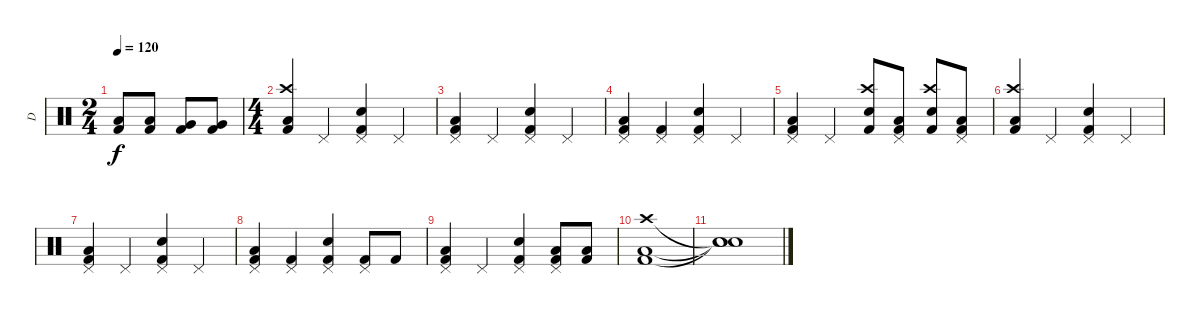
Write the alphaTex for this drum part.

\track ("D" "D") {instrument percussion}
\staff {score}
\articulation defaults
\ts (2 4)
\tempo 120
\clef neutral
\ks c
("Low Tom (hit)" "Kick (hit) 2").8{dy f} ("Low Tom (hit)" "Kick (hit) 2").8 ("Very Low Tom (hit)" "Kick (hit) 2").8 ("Very Low Tom (hit)" "Kick (hit) 2").8 |
\ts (4 4)
("Crash high (hit)" "Low Floor Tom (hit)" "Kick (hit) 2").4 "Pedal Hi-Hat (hit)".4 ("Pedal Hi-Hat (hit)" "Snare (hit) 2" "Kick (hit) 2").4 "Pedal Hi-Hat (hit)".4 |
("Pedal Hi-Hat (hit)" "Low Floor Tom (hit)" "Kick (hit) 2").4 "Pedal Hi-Hat (hit)".4 ("Pedal Hi-Hat (hit)" "Snare (hit) 2" "Kick (hit) 2").4 "Pedal Hi-Hat (hit)".4 |
("Pedal Hi-Hat (hit)" "Low Floor Tom (hit)" "Kick (hit) 2").4 ("Pedal Hi-Hat (hit)" "Kick (hit) 2").4 ("Pedal Hi-Hat (hit)" "Snare (hit) 2" "Kick (hit) 2").4 "Pedal Hi-Hat (hit)".4 |
("Pedal Hi-Hat (hit)" "Low Floor Tom (hit)" "Kick (hit) 2").4 "Pedal Hi-Hat (hit)".4 ("Crash high (hit)" "Snare (hit) 2" "Kick (hit) 2").8 ("Pedal Hi-Hat (hit)" "Low Floor Tom (hit)" "Kick (hit) 2").8 ("Crash high (hit)" "Snare (hit) 2" "Kick (hit) 2").8 ("Pedal Hi-Hat (hit)" "Low Floor Tom (hit)" "Kick (hit) 2").8 |
("Crash high (hit)" "Low Floor Tom (hit)" "Kick (hit) 2").4 "Pedal Hi-Hat (hit)".4 ("Pedal Hi-Hat (hit)" "Snare (hit) 2" "Kick (hit) 2").4 "Pedal Hi-Hat (hit)".4 |
("Pedal Hi-Hat (hit)" "Low Floor Tom (hit)" "Kick (hit) 2").4 "Pedal Hi-Hat (hit)".4 ("Pedal Hi-Hat (hit)" "Snare (hit) 2" "Kick (hit) 2").4 "Pedal Hi-Hat (hit)".4 |
("Pedal Hi-Hat (hit)" "Low Floor Tom (hit)" "Kick (hit) 2").4 ("Pedal Hi-Hat (hit)" "Kick (hit) 2").4 ("Pedal Hi-Hat (hit)" "Snare (hit) 2" "Kick (hit) 2").4 ("Pedal Hi-Hat (hit)" "Kick (hit) 2").8 "Kick (hit) 2".8 |
("Pedal Hi-Hat (hit)" "Low Floor Tom (hit)" "Kick (hit) 2").4 "Pedal Hi-Hat (hit)".4 ("Pedal Hi-Hat (hit)" "Snare (hit) 2" "Kick (hit) 2").4 ("Pedal Hi-Hat (hit)" "Low Floor Tom (hit)" "Kick (hit) 2").8 ("Low Floor Tom (hit)" "Kick (hit) 2").8 |
("Crash high (hit)" "Low Floor Tom (hit)" "Kick (hit) 2").1 |
("Snare (hit)"{t} "Snare (hit)"{t} "Snare (hit)"{t}).1
